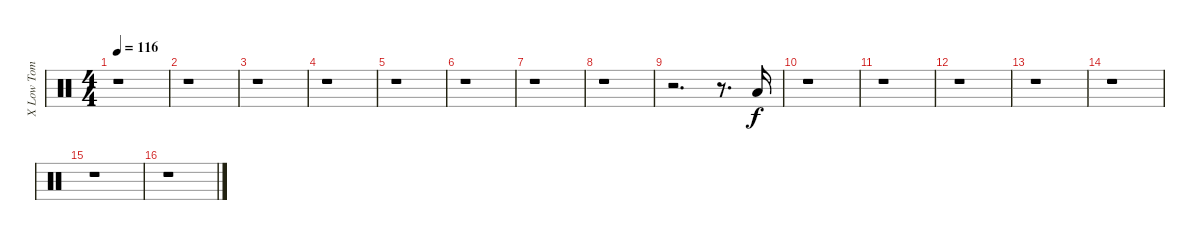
\track ("X Low Tom           " "X Low Tom ") {instrument percussion}
\staff {score}
\articulation defaults
\ts (4 4)
\tempo 116
\clef neutral
\ks c
r.1{dy f} |
r.1 |
r.1 |
r.1 |
r.1 |
r.1 |
r.1 |
r.1 |
r.2{d} r.8{d} "Low Floor Tom (hit)".16 |
r.1 |
r.1 |
r.1 |
r.1 |
r.1 |
r.1 |
r.1
